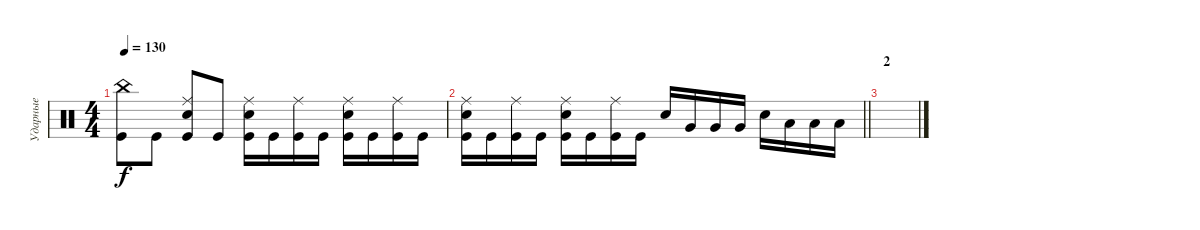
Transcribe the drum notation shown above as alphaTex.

\track ("Ударные" "Ударные") {instrument percussion}
\staff {score}
\articulation defaults
\ts (4 4)
\tempo 130
\clef neutral
\ks c
("China (hit)" "Kick (hit)").8{dy f} "Kick (hit)".8 ("Ride (middle)" "Electric Snare (hit)" "Kick (hit)").8 "Kick (hit)".8 ("Ride (middle)" "Electric Snare (hit)" "Kick (hit)").16 "Kick (hit)".16 ("Ride (middle)" "Kick (hit)").16 "Kick (hit)".16 ("Ride (middle)" "Electric Snare (hit)" "Kick (hit)").16 "Kick (hit)".16 ("Ride (middle)" "Kick (hit)").16 "Kick (hit)".16 |
\barLineRight lightlight
("Ride (middle)" "Electric Snare (hit)" "Kick (hit)").16 "Kick (hit)".16 ("Ride (middle)" "Kick (hit)").16 "Kick (hit)".16 ("Ride (middle)" "Electric Snare (hit)" "Kick (hit)").16 "Kick (hit)".16 ("Ride (middle)" "Kick (hit)").16 "Kick (hit)".16 "Electric Snare (hit)".16 "Very Low Tom (hit)".16 "Very Low Tom (hit)".16 "Very Low Tom (hit)".16 "Electric Snare (hit)".16 "Low Floor Tom (hit)".16 "Low Floor Tom (hit)".16 "Low Floor Tom (hit)".16 |
\section ("" "2")
